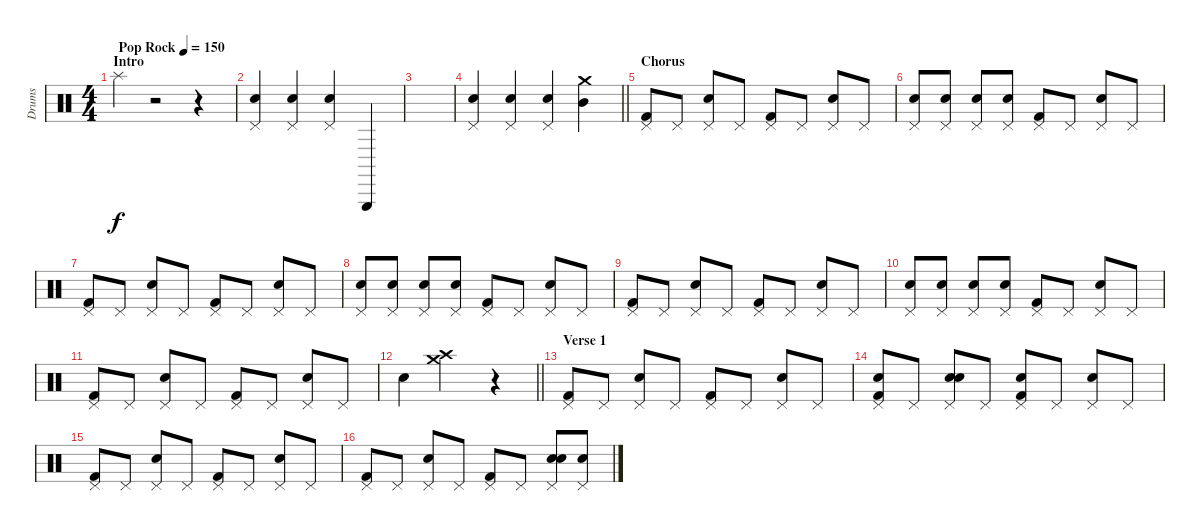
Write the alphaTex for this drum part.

\track ("Drums" "Drums") {instrument percussion}
\staff {score}
\articulation defaults
\ts (4 4)
\section ("" "Intro")
\tempo (150 "Pop Rock")
\clef neutral
\ks c "Splash (hit)".4{dy f}
r.2 r.4 |
("Electric Snare (hit)" "Pedal Hi-Hat (hit)").4 ("Snare (hit) 2" "Pedal Hi-Hat (hit)").4 ("Electric Snare (hit)" "Pedal Hi-Hat (hit)").4 "Triangle (hit)".4 |
|
\barLineRight lightlight
("Electric Snare (hit)" "Pedal Hi-Hat (hit)").4 ("Snare (hit) 2" "Pedal Hi-Hat (hit)").4 ("Electric Snare (hit)" "Pedal Hi-Hat (hit)").4 ("Mid Tom (hit)" "Crash medium (hit)").4 |
\section ("" "Chorus ")
("Kick (hit) 2" "Pedal Hi-Hat (hit)").8 "Pedal Hi-Hat (hit)".8 ("Snare (hit) 2" "Pedal Hi-Hat (hit)").8 "Pedal Hi-Hat (hit)".8 ("Kick (hit) 2" "Pedal Hi-Hat (hit)").8 "Pedal Hi-Hat (hit)".8 ("Snare (hit) 2" "Pedal Hi-Hat (hit)").8 "Pedal Hi-Hat (hit)".8 |
("Electric Snare (hit)" "Pedal Hi-Hat (hit)").8 ("Electric Snare (hit)" "Pedal Hi-Hat (hit)").8 ("Snare (hit) 2" "Pedal Hi-Hat (hit)").8 ("Snare (hit) 2" "Pedal Hi-Hat (hit)").8 ("Kick (hit) 2" "Pedal Hi-Hat (hit)").8 "Pedal Hi-Hat (hit)".8 ("Snare (hit) 2" "Pedal Hi-Hat (hit)").8 "Pedal Hi-Hat (hit)".8 |
("Kick (hit) 2" "Pedal Hi-Hat (hit)").8 "Pedal Hi-Hat (hit)".8 ("Snare (hit) 2" "Pedal Hi-Hat (hit)").8 "Pedal Hi-Hat (hit)".8 ("Kick (hit) 2" "Pedal Hi-Hat (hit)").8 "Pedal Hi-Hat (hit)".8 ("Snare (hit) 2" "Pedal Hi-Hat (hit)").8 "Pedal Hi-Hat (hit)".8 |
("Electric Snare (hit)" "Pedal Hi-Hat (hit)").8 ("Electric Snare (hit)" "Pedal Hi-Hat (hit)").8 ("Snare (hit) 2" "Pedal Hi-Hat (hit)").8 ("Snare (hit) 2" "Pedal Hi-Hat (hit)").8 ("Kick (hit) 2" "Pedal Hi-Hat (hit)").8 "Pedal Hi-Hat (hit)".8 ("Snare (hit) 2" "Pedal Hi-Hat (hit)").8 "Pedal Hi-Hat (hit)".8 |
("Kick (hit) 2" "Pedal Hi-Hat (hit)").8 "Pedal Hi-Hat (hit)".8 ("Snare (hit) 2" "Pedal Hi-Hat (hit)").8 "Pedal Hi-Hat (hit)".8 ("Kick (hit) 2" "Pedal Hi-Hat (hit)").8 "Pedal Hi-Hat (hit)".8 ("Snare (hit) 2" "Pedal Hi-Hat (hit)").8 "Pedal Hi-Hat (hit)".8 |
("Electric Snare (hit)" "Pedal Hi-Hat (hit)").8 ("Electric Snare (hit)" "Pedal Hi-Hat (hit)").8 ("Snare (hit) 2" "Pedal Hi-Hat (hit)").8 ("Snare (hit) 2" "Pedal Hi-Hat (hit)").8 ("Kick (hit) 2" "Pedal Hi-Hat (hit)").8 "Pedal Hi-Hat (hit)".8 ("Snare (hit) 2" "Pedal Hi-Hat (hit)").8 "Pedal Hi-Hat (hit)".8 |
("Kick (hit) 2" "Pedal Hi-Hat (hit)").8 "Pedal Hi-Hat (hit)".8 ("Snare (hit) 2" "Pedal Hi-Hat (hit)").8 "Pedal Hi-Hat (hit)".8 ("Kick (hit) 2" "Pedal Hi-Hat (hit)").8 "Pedal Hi-Hat (hit)".8 ("Snare (hit) 2" "Pedal Hi-Hat (hit)").8 "Pedal Hi-Hat (hit)".8 |
\barLineRight lightlight "Snare (hit) 2".4
("Crash high (hit)" "Crash medium (hit)").2 r.4 |
\section ("" "Verse 1")
("Kick (hit) 2" "Pedal Hi-Hat (hit)").8 "Pedal Hi-Hat (hit)".8 ("Snare (hit) 2" "Pedal Hi-Hat (hit)").8 "Pedal Hi-Hat (hit)".8 ("Kick (hit) 2" "Pedal Hi-Hat (hit)").8 "Pedal Hi-Hat (hit)".8 ("Snare (hit) 2" "Pedal Hi-Hat (hit)").8 "Pedal Hi-Hat (hit)".8 |
("Electric Snare (hit)" "Kick (hit) 2" "Pedal Hi-Hat (hit)").8 "Pedal Hi-Hat (hit)".8 ("Electric Snare (hit)" "Snare (hit) 2" "Pedal Hi-Hat (hit)").8 "Pedal Hi-Hat (hit)".8 ("Electric Snare (hit)" "Kick (hit) 2" "Pedal Hi-Hat (hit)").8 "Pedal Hi-Hat (hit)".8 ("Snare (hit) 2" "Pedal Hi-Hat (hit)").8 "Pedal Hi-Hat (hit)".8 |
("Kick (hit) 2" "Pedal Hi-Hat (hit)").8 "Pedal Hi-Hat (hit)".8 ("Snare (hit) 2" "Pedal Hi-Hat (hit)").8 "Pedal Hi-Hat (hit)".8 ("Kick (hit) 2" "Pedal Hi-Hat (hit)").8 "Pedal Hi-Hat (hit)".8 ("Snare (hit) 2" "Pedal Hi-Hat (hit)").8 "Pedal Hi-Hat (hit)".8 |
("Kick (hit) 2" "Pedal Hi-Hat (hit)").8 "Pedal Hi-Hat (hit)".8 ("Snare (hit) 2" "Pedal Hi-Hat (hit)").8 "Pedal Hi-Hat (hit)".8 ("Kick (hit) 2" "Pedal Hi-Hat (hit)").8 "Pedal Hi-Hat (hit)".8 ("Electric Snare (hit)" "Snare (hit) 2" "Pedal Hi-Hat (hit)").8 ("Electric Snare (hit)" "Pedal Hi-Hat (hit)").8
